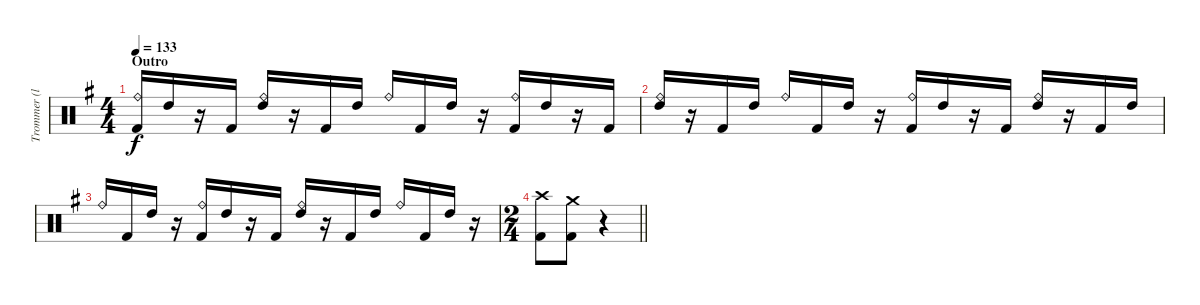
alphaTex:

\track ("Trommer (lidt hjælp)" "Trommer (l") {instrument percussion}
\staff {score}
\articulation defaults
\ts (4 4)
\section ("" "Outro")
\tempo 133
\clef neutral
\ks eminor
("Ride (bell)" "Kick (hit) 2").16{dy f beam Up} "High Tom (hit)".16{beam Up} r.16 "Kick (hit) 2".16 ("Ride (bell)" "High Tom (hit)").16{beam Up} r.16 "Kick (hit) 2".16{beam Up} "High Tom (hit)".16{beam Up} "Ride (bell)".16{beam Up} "Kick (hit) 2".16{beam Up} "High Tom (hit)".16{beam Up} r.16 ("Ride (bell)" "Kick (hit) 2").16{beam Up} "High Tom (hit)".16{beam Up} r.16 "Kick (hit) 2".16 |
("Ride (bell)" "High Tom (hit)").16{beam Up} r.16 "Kick (hit) 2".16{beam Up} "High Tom (hit)".16{beam Up} "Ride (bell)".16{beam Up} "Kick (hit) 2".16{beam Up} "High Tom (hit)".16{beam Up} r.16 ("Ride (bell)" "Kick (hit) 2").16{beam Up} "High Tom (hit)".16{beam Up} r.16 "Kick (hit) 2".16 ("Ride (bell)" "High Tom (hit)").16{beam Up} r.16 "Kick (hit) 2".16{beam Up} "High Tom (hit)".16{beam Up} |
"Ride (bell)".16{beam Up} "Kick (hit) 2".16{beam Up} "High Tom (hit)".16{beam Up} r.16 ("Ride (bell)" "Kick (hit) 2").16{beam Up} "High Tom (hit)".16{beam Up} r.16 "Kick (hit) 2".16 ("Ride (bell)" "High Tom (hit)").16{beam Up} r.16 "Kick (hit) 2".16{beam Up} "High Tom (hit)".16{beam Up} "Ride (bell)".16{beam Up} "Kick (hit) 2".16{beam Up} "High Tom (hit)".16{beam Up} r.16 |
\ts (2 4)
\barLineRight lightlight
("Crash high (hit)" "Kick (hit) 2").8 ("Crash medium (hit)" "Kick (hit) 2").8 r.4
